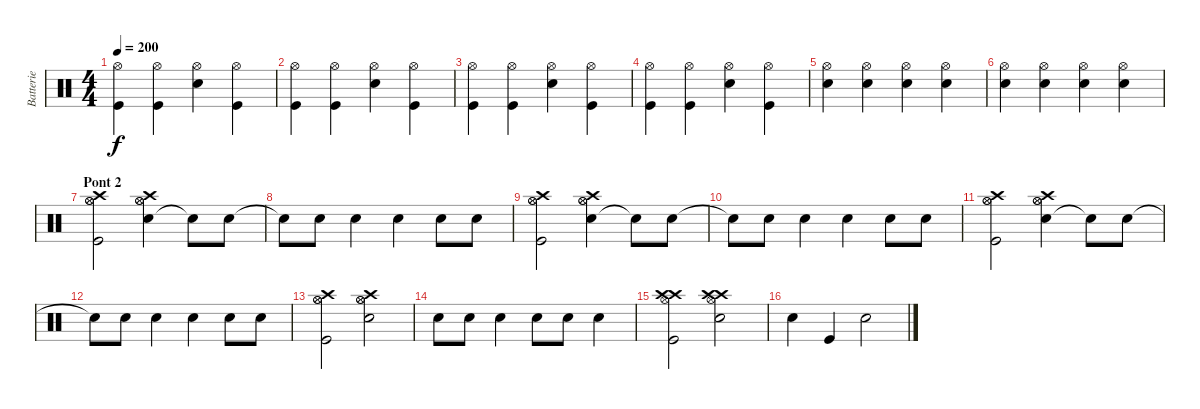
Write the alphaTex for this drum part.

\track ("Batterie" "Batterie") {instrument percussion}
\staff {score}
\articulation defaults
\ts (4 4)
\tempo 200
\clef neutral
\ks c
("Kick (hit)" "Hi-Hat (open)").4{dy f} ("Kick (hit)" "Hi-Hat (open)").4 ("Electric Snare (hit)" "Hi-Hat (open)").4 ("Kick (hit)" "Hi-Hat (open)").4 |
("Kick (hit)" "Hi-Hat (open)").4 ("Kick (hit)" "Hi-Hat (open)").4 ("Electric Snare (hit)" "Hi-Hat (open)").4 ("Kick (hit)" "Hi-Hat (open)").4 |
("Kick (hit)" "Hi-Hat (open)").4 ("Kick (hit)" "Hi-Hat (open)").4 ("Electric Snare (hit)" "Hi-Hat (open)").4 ("Kick (hit)" "Hi-Hat (open)").4 |
("Kick (hit)" "Hi-Hat (open)").4 ("Kick (hit)" "Hi-Hat (open)").4 ("Electric Snare (hit)" "Hi-Hat (open)").4 ("Kick (hit)" "Hi-Hat (open)").4 |
("Electric Snare (hit)" "Hi-Hat (open)").4 ("Electric Snare (hit)" "Hi-Hat (open)").4 ("Electric Snare (hit)" "Hi-Hat (open)").4 ("Electric Snare (hit)" "Hi-Hat (open)").4 |
("Electric Snare (hit)" "Hi-Hat (open)").4 ("Electric Snare (hit)" "Hi-Hat (open)").4 ("Electric Snare (hit)" "Hi-Hat (open)").4 ("Electric Snare (hit)" "Hi-Hat (open)").4 |
\section ("" "Pont 2")
("Kick (hit)" "Hi-Hat (open)" "Hi-Hat (open)" "Crash high (hit)").2 ("Electric Snare (hit)" "Hi-Hat (open)" "Hi-Hat (open)" "Crash high (hit)").4 "Snare (hit)"{t}.8 "Electric Snare (hit)".8 |
"Electric Snare (hit)"{t}.8 "Electric Snare (hit)".8 "Electric Snare (hit)".4 "Electric Snare (hit)".4 "Electric Snare (hit)".8 "Electric Snare (hit)".8 |
("Kick (hit)" "Hi-Hat (open)" "Hi-Hat (open)" "Crash high (hit)").2 ("Electric Snare (hit)" "Hi-Hat (open)" "Hi-Hat (open)" "Crash high (hit)").4 "Snare (hit)"{t}.8 "Electric Snare (hit)".8 |
"Snare (hit)"{t}.8 "Electric Snare (hit)".8 "Electric Snare (hit)".4 "Electric Snare (hit)".4 "Electric Snare (hit)".8 "Electric Snare (hit)".8 |
("Kick (hit)" "Hi-Hat (open)" "Hi-Hat (open)" "Crash high (hit)").2 ("Electric Snare (hit)" "Hi-Hat (open)" "Hi-Hat (open)" "Crash high (hit)").4 "Snare (hit)"{t}.8 "Electric Snare (hit)".8 |
"Snare (hit)"{t}.8 "Electric Snare (hit)".8 "Electric Snare (hit)".4 "Electric Snare (hit)".4 "Electric Snare (hit)".8 "Electric Snare (hit)".8 |
("Kick (hit)" "Hi-Hat (open)" "Hi-Hat (open)" "Crash high (hit)").2 ("Electric Snare (hit)" "Hi-Hat (open)" "Hi-Hat (open)" "Crash high (hit)").2 |
"Electric Snare (hit)".8 "Electric Snare (hit)".8 "Electric Snare (hit)".4 "Electric Snare (hit)".8 "Electric Snare (hit)".8 "Electric Snare (hit)".4 |
("Kick (hit)" "Crash high (hit)" "Crash high (hit)" "Hi-Hat (open)").2 ("Electric Snare (hit)" "Crash high (hit)" "Crash high (hit)" "Hi-Hat (open)").2 |
"Electric Snare (hit)".4 "Kick (hit)".4 "Electric Snare (hit)".2
